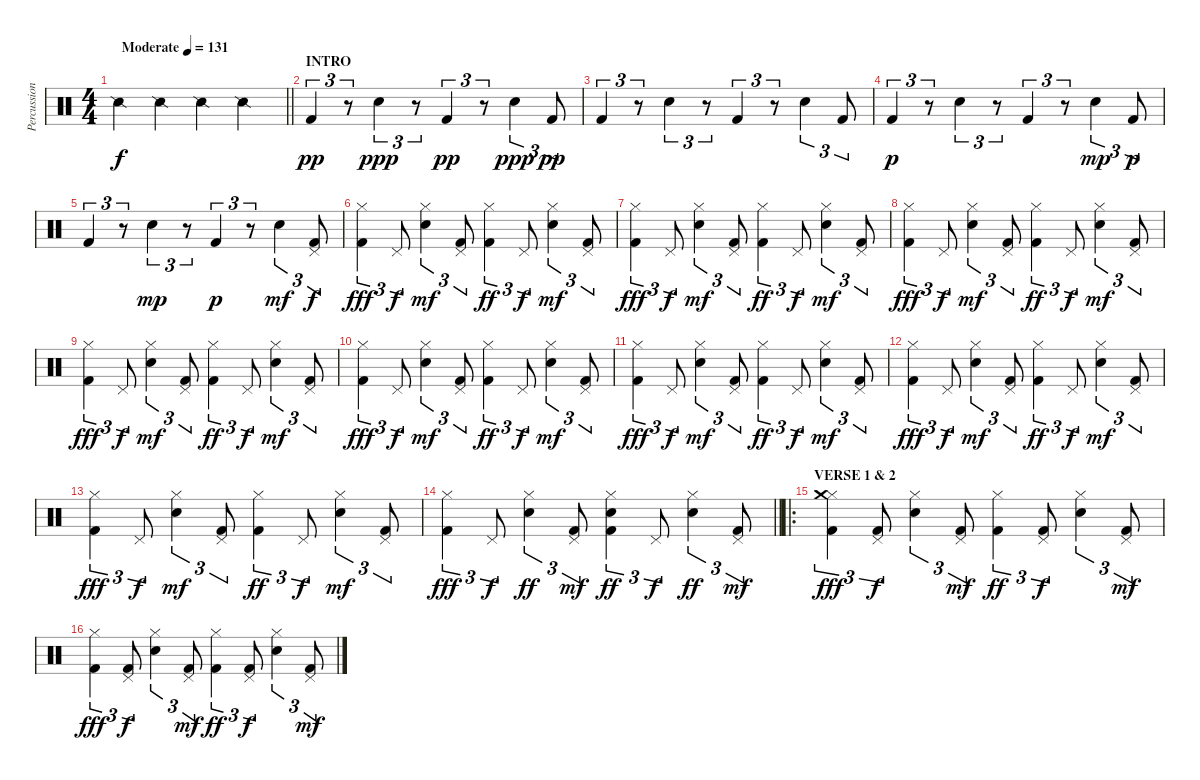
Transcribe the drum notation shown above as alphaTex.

\track ("Percussion" "Percussion") {instrument percussion}
\staff {score}
\articulation defaults
\ts (4 4)
\tempo (131 "Moderate")
\clef neutral
\barLineRight lightlight
\ks c "Snare (side stick) 2".4{dy f} "Snare (side stick) 2".4 "Snare (side stick) 2".4 "Snare (side stick) 2".4
|
\section ("" "INTRO")
"Kick (hit) 2".4{tu (3 2) dy pp} r.8{tu (3 2)} "Electric Snare (hit)".4{tu (3 2) dy ppp} r.8{tu (3 2)} "Kick (hit) 2".4{tu (3 2) dy pp} r.8{tu (3 2)} "Electric Snare (hit)".4{tu (3 2) dy ppp} "Kick (hit) 2".8{tu (3 2) dy pp} |
"Kick (hit) 2".4{tu (3 2)} r.8{tu (3 2)} "Electric Snare (hit)".4{tu (3 2)} r.8{tu (3 2)} "Kick (hit) 2".4{tu (3 2)} r.8{tu (3 2)} "Electric Snare (hit)".4{tu (3 2)} "Kick (hit) 2".8{tu (3 2)} |
"Kick (hit) 2".4{tu (3 2) dy p} r.8{tu (3 2)} "Electric Snare (hit)".4{tu (3 2)} r.8{tu (3 2)} "Kick (hit) 2".4{tu (3 2)} r.8{tu (3 2)} "Electric Snare (hit)".4{tu (3 2) dy mp} "Kick (hit) 2".8{tu (3 2) dy p} |
"Kick (hit) 2".4{tu (3 2)} r.8{tu (3 2)} "Electric Snare (hit)".4{tu (3 2) dy mp} r.8{tu (3 2)} "Kick (hit) 2".4{tu (3 2) dy p} r.8{tu (3 2)} "Electric Snare (hit)".4{tu (3 2) dy mf} ("Pedal Hi-Hat (hit)" "Kick (hit) 2").8{tu (3 2) dy f} |
("Hi-Hat (closed)" "Kick (hit) 2").4{tu (3 2) dy fff} "Pedal Hi-Hat (hit)".8{tu (3 2) dy f} ("Hi-Hat (closed)" "Electric Snare (hit)").4{tu (3 2) dy mf} ("Pedal Hi-Hat (hit)" "Kick (hit) 2").8{tu (3 2)} ("Hi-Hat (closed)" "Kick (hit) 2").4{tu (3 2) dy ff} "Pedal Hi-Hat (hit)".8{tu (3 2) dy f} ("Hi-Hat (closed)" "Electric Snare (hit)").4{tu (3 2) dy mf} ("Pedal Hi-Hat (hit)" "Kick (hit) 2").8{tu (3 2)} |
("Hi-Hat (closed)" "Kick (hit) 2").4{tu (3 2) dy fff} "Pedal Hi-Hat (hit)".8{tu (3 2) dy f} ("Hi-Hat (closed)" "Electric Snare (hit)").4{tu (3 2) dy mf} ("Pedal Hi-Hat (hit)" "Kick (hit) 2").8{tu (3 2)} ("Hi-Hat (closed)" "Kick (hit) 2").4{tu (3 2) dy ff} "Pedal Hi-Hat (hit)".8{tu (3 2) dy f} ("Hi-Hat (closed)" "Electric Snare (hit)").4{tu (3 2) dy mf} ("Pedal Hi-Hat (hit)" "Kick (hit) 2").8{tu (3 2)} |
("Hi-Hat (closed)" "Kick (hit) 2").4{tu (3 2) dy fff} "Pedal Hi-Hat (hit)".8{tu (3 2) dy f} ("Hi-Hat (closed)" "Electric Snare (hit)").4{tu (3 2) dy mf} ("Pedal Hi-Hat (hit)" "Kick (hit) 2").8{tu (3 2)} ("Hi-Hat (closed)" "Kick (hit) 2").4{tu (3 2) dy ff} "Pedal Hi-Hat (hit)".8{tu (3 2) dy f} ("Hi-Hat (closed)" "Electric Snare (hit)").4{tu (3 2) dy mf} ("Pedal Hi-Hat (hit)" "Kick (hit) 2").8{tu (3 2)} |
("Hi-Hat (closed)" "Kick (hit) 2").4{tu (3 2) dy fff} "Pedal Hi-Hat (hit)".8{tu (3 2) dy f} ("Hi-Hat (closed)" "Electric Snare (hit)").4{tu (3 2) dy mf} ("Pedal Hi-Hat (hit)" "Kick (hit) 2").8{tu (3 2)} ("Hi-Hat (closed)" "Kick (hit) 2").4{tu (3 2) dy ff} "Pedal Hi-Hat (hit)".8{tu (3 2) dy f} ("Hi-Hat (closed)" "Electric Snare (hit)").4{tu (3 2) dy mf} ("Pedal Hi-Hat (hit)" "Kick (hit) 2").8{tu (3 2)} |
("Hi-Hat (closed)" "Kick (hit) 2").4{tu (3 2) dy fff} "Pedal Hi-Hat (hit)".8{tu (3 2) dy f} ("Hi-Hat (closed)" "Electric Snare (hit)").4{tu (3 2) dy mf} ("Pedal Hi-Hat (hit)" "Kick (hit) 2").8{tu (3 2)} ("Hi-Hat (closed)" "Kick (hit) 2").4{tu (3 2) dy ff} "Pedal Hi-Hat (hit)".8{tu (3 2) dy f} ("Hi-Hat (closed)" "Electric Snare (hit)").4{tu (3 2) dy mf} ("Pedal Hi-Hat (hit)" "Kick (hit) 2").8{tu (3 2)} |
("Hi-Hat (closed)" "Kick (hit) 2").4{tu (3 2) dy fff} "Pedal Hi-Hat (hit)".8{tu (3 2) dy f} ("Hi-Hat (closed)" "Electric Snare (hit)").4{tu (3 2) dy mf} ("Pedal Hi-Hat (hit)" "Kick (hit) 2").8{tu (3 2)} ("Hi-Hat (closed)" "Kick (hit) 2").4{tu (3 2) dy ff} "Pedal Hi-Hat (hit)".8{tu (3 2) dy f} ("Hi-Hat (closed)" "Electric Snare (hit)").4{tu (3 2) dy mf} ("Pedal Hi-Hat (hit)" "Kick (hit) 2").8{tu (3 2)} |
("Hi-Hat (closed)" "Kick (hit) 2").4{tu (3 2) dy fff} "Pedal Hi-Hat (hit)".8{tu (3 2) dy f} ("Hi-Hat (closed)" "Electric Snare (hit)").4{tu (3 2) dy mf} ("Pedal Hi-Hat (hit)" "Kick (hit) 2").8{tu (3 2)} ("Hi-Hat (closed)" "Kick (hit) 2").4{tu (3 2) dy ff} "Pedal Hi-Hat (hit)".8{tu (3 2) dy f} ("Hi-Hat (closed)" "Electric Snare (hit)").4{tu (3 2) dy mf} ("Pedal Hi-Hat (hit)" "Kick (hit) 2").8{tu (3 2)} |
("Hi-Hat (closed)" "Kick (hit) 2").4{tu (3 2) dy fff} "Pedal Hi-Hat (hit)".8{tu (3 2) dy f} ("Hi-Hat (closed)" "Electric Snare (hit)").4{tu (3 2) dy mf} ("Pedal Hi-Hat (hit)" "Kick (hit) 2").8{tu (3 2)} ("Hi-Hat (closed)" "Kick (hit) 2").4{tu (3 2) dy ff} "Pedal Hi-Hat (hit)".8{tu (3 2) dy f} ("Hi-Hat (closed)" "Electric Snare (hit)").4{tu (3 2) dy mf} ("Pedal Hi-Hat (hit)" "Kick (hit) 2").8{tu (3 2)} |
\barLineRight lightlight
("Hi-Hat (closed)" "Kick (hit) 2").4{tu (3 2) dy fff} "Pedal Hi-Hat (hit)".8{tu (3 2) dy f} ("Hi-Hat (closed)" "Electric Snare (hit)").4{tu (3 2) dy ff} ("Pedal Hi-Hat (hit)" "Kick (hit) 2").8{tu (3 2) dy mf} ("Hi-Hat (closed)" "Electric Snare (hit)" "Kick (hit) 2").4{tu (3 2) dy ff} "Pedal Hi-Hat (hit)".8{tu (3 2) dy f} ("Hi-Hat (closed)" "Electric Snare (hit)").4{tu (3 2) dy ff} ("Pedal Hi-Hat (hit)" "Kick (hit) 2").8{tu (3 2) dy mf} |
\ro
\section ("" "VERSE 1 & 2")
("Hi-Hat (closed)" "Crash medium (hit)" "Kick (hit) 2").4{tu (3 2) dy fff} ("Pedal Hi-Hat (hit)" "Kick (hit) 2").8{tu (3 2) dy f} ("Hi-Hat (closed)" "Electric Snare (hit)").4{tu (3 2)} ("Pedal Hi-Hat (hit)" "Kick (hit) 2").8{tu (3 2) dy mf} ("Hi-Hat (closed)" "Kick (hit) 2").4{tu (3 2) dy ff} ("Pedal Hi-Hat (hit)" "Kick (hit) 2").8{tu (3 2) dy f} ("Hi-Hat (closed)" "Electric Snare (hit)").4{tu (3 2)} ("Pedal Hi-Hat (hit)" "Kick (hit) 2").8{tu (3 2) dy mf} |
("Hi-Hat (closed)" "Kick (hit) 2").4{tu (3 2) dy fff} ("Pedal Hi-Hat (hit)" "Kick (hit) 2").8{tu (3 2) dy f} ("Hi-Hat (closed)" "Electric Snare (hit)").4{tu (3 2)} ("Pedal Hi-Hat (hit)" "Kick (hit) 2").8{tu (3 2) dy mf} ("Hi-Hat (closed)" "Kick (hit) 2").4{tu (3 2) dy ff} ("Pedal Hi-Hat (hit)" "Kick (hit) 2").8{tu (3 2) dy f} ("Hi-Hat (closed)" "Electric Snare (hit)").4{tu (3 2)} ("Pedal Hi-Hat (hit)" "Kick (hit) 2").8{tu (3 2) dy mf}
